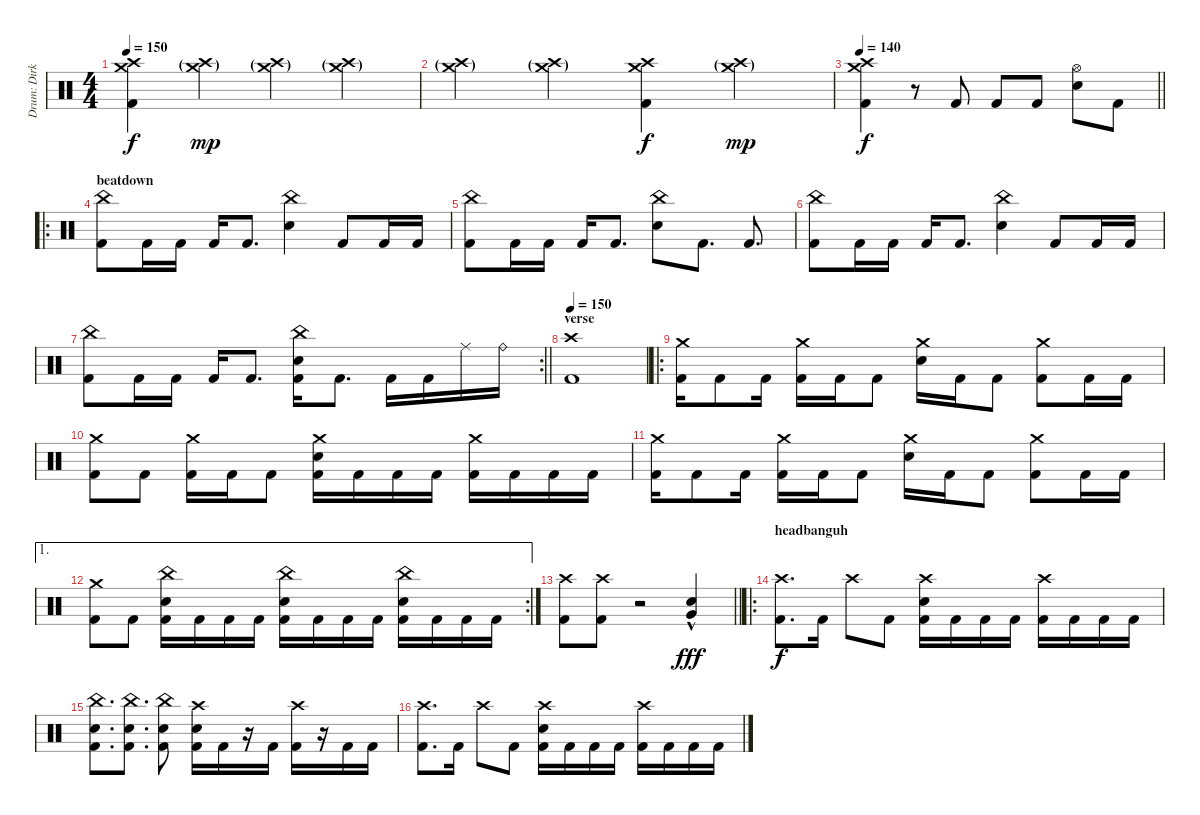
\track ("Drum: Dirk" "Drum: Dirk") {instrument percussion}
\staff {score}
\articulation defaults
\ts (4 4)
\tempo 150
\clef neutral
\ks c
("Crash high (hit)" "Crash medium (hit)" "Kick (hit) 2").4{dy f} ("Crash high (hit)"{g} "Crash medium (hit)"{g}).4{dy mp} ("Crash high (hit)"{g} "Crash medium (hit)"{g}).4 ("Crash high (hit)"{g} "Crash medium (hit)"{g}).4 |
("Crash high (hit)"{g} "Crash medium (hit)"{g}).4 ("Crash high (hit)"{g} "Crash medium (hit)"{g}).4 ("Crash high (hit)" "Crash medium (hit)" "Kick (hit) 2").4{dy f} ("Crash high (hit)"{g} "Crash medium (hit)"{g}).4{dy mp} |
\tempo 140
\barLineRight lightlight
("Crash high (hit)" "Crash medium (hit)" "Kick (hit) 2").4{dy f} r.8 "Kick (hit) 2".8 "Kick (hit) 2".8 "Kick (hit) 2".8 ("Hi-Hat (open)" "Electric Snare (hit)").8 "Kick (hit) 2".8 |
\ro
\section ("" "beatdown")
("China (hit)" "Kick (hit) 2").8 "Kick (hit) 2".16 "Kick (hit) 2".16 "Kick (hit) 2".16 "Kick (hit) 2".8{d} ("China (hit)" "Electric Snare (hit)").4 "Kick (hit) 2".8 "Kick (hit) 2".16 "Kick (hit) 2".16 |
("China (hit)" "Kick (hit) 2").8 "Kick (hit) 2".16 "Kick (hit) 2".16 "Kick (hit) 2".16 "Kick (hit) 2".8{d} ("China (hit)" "Electric Snare (hit)").8 "Kick (hit) 2".8{d} "Kick (hit) 2".8{d} |
("China (hit)" "Kick (hit) 2").8 "Kick (hit) 2".16 "Kick (hit) 2".16 "Kick (hit) 2".16 "Kick (hit) 2".8{d} ("China (hit)" "Electric Snare (hit)").4 "Kick (hit) 2".8 "Kick (hit) 2".16 "Kick (hit) 2".16 |
\rc 2
\barLineRight lightlight
("China (hit)" "Kick (hit) 2").8 "Kick (hit) 2".16 "Kick (hit) 2".16 "Kick (hit) 2".16 "Kick (hit) 2".8{d} ("China (hit)" "Electric Snare (hit)" "Kick (hit) 2").16 "Kick (hit) 2".8{d} "Kick (hit) 2".16 "Kick (hit) 2".16 "Ride (middle)".16 "Ride (bell)".16 |
\section ("" "verse")
\tempo 150
("Crash high (hit)" "Kick (hit) 2").1 |
\ro
("Crash medium (hit)" "Kick (hit) 2").16 "Kick (hit) 2".8 "Kick (hit) 2".16 ("Crash medium (hit)" "Kick (hit) 2").16 "Kick (hit) 2".16 "Kick (hit) 2".8 ("Crash medium (hit)" "Electric Snare (hit)").16 "Kick (hit) 2".16 "Kick (hit) 2".8 ("Crash medium (hit)" "Kick (hit) 2").8 "Kick (hit) 2".16 "Kick (hit) 2".16 |
("Crash medium (hit)" "Kick (hit) 2").8 "Kick (hit) 2".8 ("Crash medium (hit)" "Kick (hit) 2").16 "Kick (hit) 2".16 "Kick (hit) 2".8 ("Crash medium (hit)" "Electric Snare (hit)" "Kick (hit) 2").16 "Kick (hit) 2".16 "Kick (hit) 2".16 "Kick (hit) 2".16 ("Crash medium (hit)" "Kick (hit) 2").16 "Kick (hit) 2".16 "Kick (hit) 2".16 "Kick (hit) 2".16 |
("Crash medium (hit)" "Kick (hit) 2").16 "Kick (hit) 2".8 "Kick (hit) 2".16 ("Crash medium (hit)" "Kick (hit) 2").16 "Kick (hit) 2".16 "Kick (hit) 2".8 ("Crash medium (hit)" "Electric Snare (hit)").16 "Kick (hit) 2".16 "Kick (hit) 2".8 ("Crash medium (hit)" "Kick (hit) 2").8 "Kick (hit) 2".16 "Kick (hit) 2".16 |
\ae 1
\rc 2
("Crash medium (hit)" "Kick (hit) 2").8 "Kick (hit) 2".8 ("China (hit)" "Electric Snare (hit)" "Kick (hit) 2").16 "Kick (hit) 2".16 "Kick (hit) 2".16 "Kick (hit) 2".16 ("China (hit)" "Electric Snare (hit)" "Kick (hit) 2").16 "Kick (hit) 2".16 "Kick (hit) 2".16 "Kick (hit) 2".16 ("China (hit)" "Electric Snare (hit)" "Kick (hit) 2").16 "Kick (hit) 2".16 "Kick (hit) 2".16 "Kick (hit) 2".16 |
\barLineRight lightlight
("Crash high (hit)" "Kick (hit) 2").8 ("Crash high (hit)" "Kick (hit) 2").8 r.2 ("Electric Snare (hit)" "Very Low Tom (hit)"{hac}).4{dy fff} |
\ro
\section ("" "headbanguh")
("Crash high (hit)" "Kick (hit) 2").8{d dy f volume 14} "Kick (hit) 2".16 "Crash high (hit)".8 "Kick (hit) 2".8 ("Crash high (hit)" "Electric Snare (hit)" "Kick (hit) 2").16 "Kick (hit) 2".16 "Kick (hit) 2".16 "Kick (hit) 2".16 ("Crash high (hit)" "Kick (hit) 2").16 "Kick (hit) 2".16 "Kick (hit) 2".16 "Kick (hit) 2".16 |
("China (hit)" "Electric Snare (hit)" "Kick (hit) 2").8{d} ("China (hit)" "Electric Snare (hit)" "Kick (hit) 2").8{d} ("China (hit)" "Electric Snare (hit)" "Kick (hit) 2").8 ("Crash high (hit)" "Electric Snare (hit)" "Kick (hit) 2").16 "Kick (hit) 2".16 r.16 "Kick (hit) 2".16 ("Crash high (hit)" "Kick (hit) 2").16 r.16 "Kick (hit) 2".16 "Kick (hit) 2".16 |
("Crash high (hit)" "Kick (hit) 2").8{d} "Kick (hit) 2".16 "Crash high (hit)".8 "Kick (hit) 2".8 ("Crash high (hit)" "Electric Snare (hit)" "Kick (hit) 2").16 "Kick (hit) 2".16 "Kick (hit) 2".16 "Kick (hit) 2".16 ("Crash high (hit)" "Kick (hit) 2").16 "Kick (hit) 2".16 "Kick (hit) 2".16 "Kick (hit) 2".16
